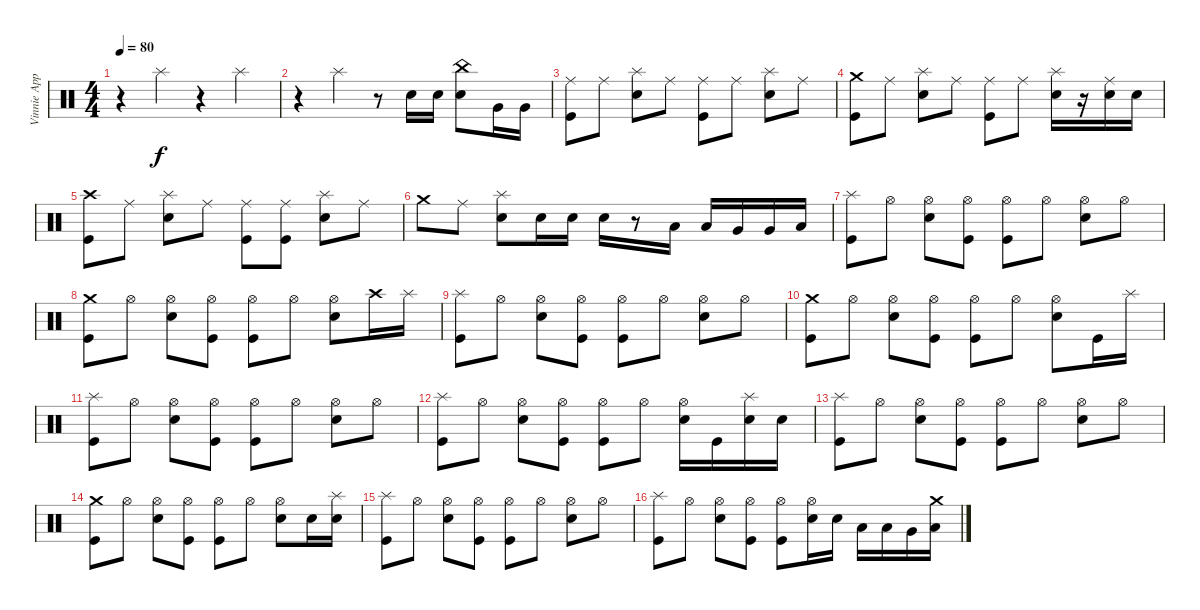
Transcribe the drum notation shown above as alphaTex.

\track ("Vinnie Appice (drums)" "Vinnie App") {instrument percussion}
\staff {score}
\articulation defaults
\ts (4 4)
\tempo 80
\clef neutral
\ks c
r.4{dy f} "Splash (hit)".4 r.4 "Splash (hit)".4 |
r.4 "Splash (hit)".4 r.8 "Snare (hit) 2".16 "Snare (hit) 2".16 ("China (hit)" "Snare (hit) 2").8 "Very Low Tom (hit)".16 "Very Low Tom (hit)".16 |
("Ride (middle)" "Kick (hit)").8 "Ride (middle)".8 ("Splash (hit)" "Snare (hit) 2").8 "Ride (middle)".8 ("Ride (middle)" "Kick (hit)").8 "Ride (middle)".8 ("Splash (hit)" "Snare (hit) 2").8 "Ride (middle)".8 |
("Crash medium (hit)" "Kick (hit)").8 "Ride (middle)".8 ("Splash (hit)" "Snare (hit) 2").8 "Ride (middle)".8 ("Ride (middle)" "Kick (hit)").8 "Ride (middle)".8 ("Splash (hit)" "Snare (hit) 2").16 r.16 ("Ride (middle)" "Snare (hit) 2").16 "Snare (hit) 2".16 |
("Crash high (hit)" "Kick (hit)").8 "Ride (middle)".8 ("Splash (hit)" "Snare (hit) 2").8 "Ride (middle)".8 ("Ride (middle)" "Kick (hit)").8 ("Ride (middle)" "Kick (hit)").8 ("Splash (hit)" "Snare (hit) 2").8 "Ride (middle)".8 |
"Crash medium (hit)".8 "Ride (middle)".8 ("Splash (hit)" "Snare (hit) 2").8 "Snare (hit) 2".16 "Snare (hit) 2".16 "Snare (hit) 2".16 r.8 "Low Tom (hit)".16 "Low Tom (hit)".16 "Very Low Tom (hit)".16 "Very Low Tom (hit)".16 "Low Floor Tom (hit)".16 |
("Splash (hit)" "Kick (hit)").8 "Hi-Hat (open)".8 ("Hi-Hat (open)" "Snare (hit) 2").8 ("Hi-Hat (open)" "Kick (hit)").8 ("Hi-Hat (open)" "Kick (hit)").8 "Hi-Hat (open)".8 ("Hi-Hat (open)" "Snare (hit) 2").8 "Hi-Hat (open)".8 |
("Crash medium (hit)" "Kick (hit)").8 "Hi-Hat (open)".8 ("Hi-Hat (open)" "Snare (hit) 2").8 ("Hi-Hat (open)" "Kick (hit)").8 ("Hi-Hat (open)" "Kick (hit)").8 "Hi-Hat (open)".8 ("Hi-Hat (open)" "Snare (hit) 2").8 "Crash high (hit)".16 "Splash (hit)".16 |
("Splash (hit)" "Kick (hit)").8 "Hi-Hat (open)".8 ("Hi-Hat (open)" "Snare (hit) 2").8 ("Hi-Hat (open)" "Kick (hit)").8 ("Hi-Hat (open)" "Kick (hit)").8 "Hi-Hat (open)".8 ("Hi-Hat (open)" "Snare (hit) 2").8 "Hi-Hat (open)".8 |
("Crash medium (hit)" "Kick (hit)").8 "Hi-Hat (open)".8 ("Hi-Hat (open)" "Snare (hit) 2").8 ("Hi-Hat (open)" "Kick (hit)").8 ("Hi-Hat (open)" "Kick (hit)").8 "Hi-Hat (open)".8 ("Hi-Hat (open)" "Snare (hit) 2").8 "Kick (hit)".16 "Splash (hit)".16 |
("Splash (hit)" "Kick (hit)").8 "Hi-Hat (open)".8 ("Hi-Hat (open)" "Snare (hit) 2").8 ("Hi-Hat (open)" "Kick (hit)").8 ("Hi-Hat (open)" "Kick (hit)").8 "Hi-Hat (open)".8 ("Hi-Hat (open)" "Snare (hit) 2").8 "Hi-Hat (open)".8 |
("Splash (hit)" "Kick (hit)").8 "Hi-Hat (open)".8 ("Hi-Hat (open)" "Snare (hit) 2").8 ("Hi-Hat (open)" "Kick (hit)").8 ("Hi-Hat (open)" "Kick (hit)").8 "Hi-Hat (open)".8 ("Hi-Hat (open)" "Snare (hit) 2").16 "Kick (hit)".16 ("Splash (hit)" "Snare (hit) 2").16 "Snare (hit) 2".16 |
("Splash (hit)" "Kick (hit)").8 "Hi-Hat (open)".8 ("Hi-Hat (open)" "Snare (hit) 2").8 ("Hi-Hat (open)" "Kick (hit)").8 ("Hi-Hat (open)" "Kick (hit)").8 "Hi-Hat (open)".8 ("Hi-Hat (open)" "Snare (hit) 2").8 "Hi-Hat (open)".8 |
("Crash medium (hit)" "Kick (hit)").8 "Hi-Hat (open)".8 ("Hi-Hat (open)" "Snare (hit) 2").8 ("Hi-Hat (open)" "Kick (hit)").8 ("Hi-Hat (open)" "Kick (hit)").8 "Hi-Hat (open)".8 ("Hi-Hat (open)" "Snare (hit) 2").8 "Snare (hit) 2".16 ("Splash (hit)" "Snare (hit) 2").16 |
("Splash (hit)" "Kick (hit)").8 "Hi-Hat (open)".8 ("Hi-Hat (open)" "Snare (hit) 2").8 ("Hi-Hat (open)" "Kick (hit)").8 ("Hi-Hat (open)" "Kick (hit)").8 "Hi-Hat (open)".8 ("Hi-Hat (open)" "Snare (hit) 2").8 "Hi-Hat (open)".8 |
("Splash (hit)" "Kick (hit)").8 "Hi-Hat (open)".8 ("Hi-Hat (open)" "Snare (hit) 2").8 ("Hi-Hat (open)" "Kick (hit)").8 ("Hi-Hat (open)" "Kick (hit)").8 ("Hi-Hat (open)" "Snare (hit) 2").16 "Snare (hit) 2".16 "Low Tom (hit)".16 "Low Tom (hit)".16 "Very Low Tom (hit)".16 ("Crash medium (hit)" "Low Floor Tom (hit)").16
